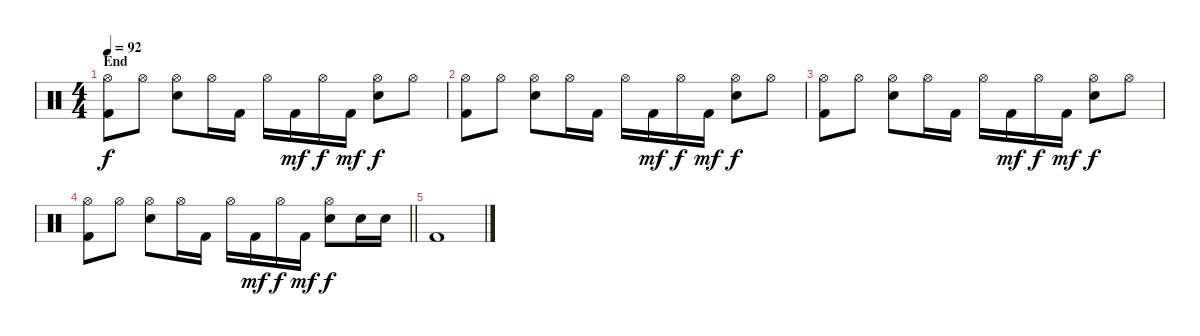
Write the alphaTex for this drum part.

\track "" {instrument percussion}
\staff {score}
\articulation defaults
\ts (4 4)
\section ("" "End")
\tempo 92
\clef neutral
\ks c
("Hi-Hat (open)" "Kick (hit) 2").8{dy f} "Hi-Hat (open)".8 ("Hi-Hat (open)" "Electric Snare (hit)").8 "Hi-Hat (open)".16 "Kick (hit) 2".16 "Hi-Hat (open)".16 "Kick (hit) 2".16{dy mf} "Hi-Hat (open)".16{dy f} "Kick (hit) 2".16{dy mf} ("Hi-Hat (open)" "Electric Snare (hit)").8{dy f} "Hi-Hat (open)".8 |
("Hi-Hat (open)" "Kick (hit) 2").8 "Hi-Hat (open)".8 ("Hi-Hat (open)" "Electric Snare (hit)").8 "Hi-Hat (open)".16 "Kick (hit) 2".16 "Hi-Hat (open)".16 "Kick (hit) 2".16{dy mf} "Hi-Hat (open)".16{dy f} "Kick (hit) 2".16{dy mf} ("Hi-Hat (open)" "Electric Snare (hit)").8{dy f} "Hi-Hat (open)".8 |
("Hi-Hat (open)" "Kick (hit) 2").8 "Hi-Hat (open)".8 ("Hi-Hat (open)" "Electric Snare (hit)").8 "Hi-Hat (open)".16 "Kick (hit) 2".16 "Hi-Hat (open)".16 "Kick (hit) 2".16{dy mf} "Hi-Hat (open)".16{dy f} "Kick (hit) 2".16{dy mf} ("Hi-Hat (open)" "Electric Snare (hit)").8{dy f} "Hi-Hat (open)".8 |
\barLineRight lightlight
("Hi-Hat (open)" "Kick (hit) 2").8 "Hi-Hat (open)".8 ("Hi-Hat (open)" "Electric Snare (hit)").8 "Hi-Hat (open)".16 "Kick (hit) 2".16 "Hi-Hat (open)".16 "Kick (hit) 2".16{dy mf} "Hi-Hat (open)".16{dy f} "Kick (hit) 2".16{dy mf} ("Hi-Hat (open)" "Electric Snare (hit)").8{dy f} "Electric Snare (hit)".16 "Electric Snare (hit)".16 |
"Kick (hit) 2".1
